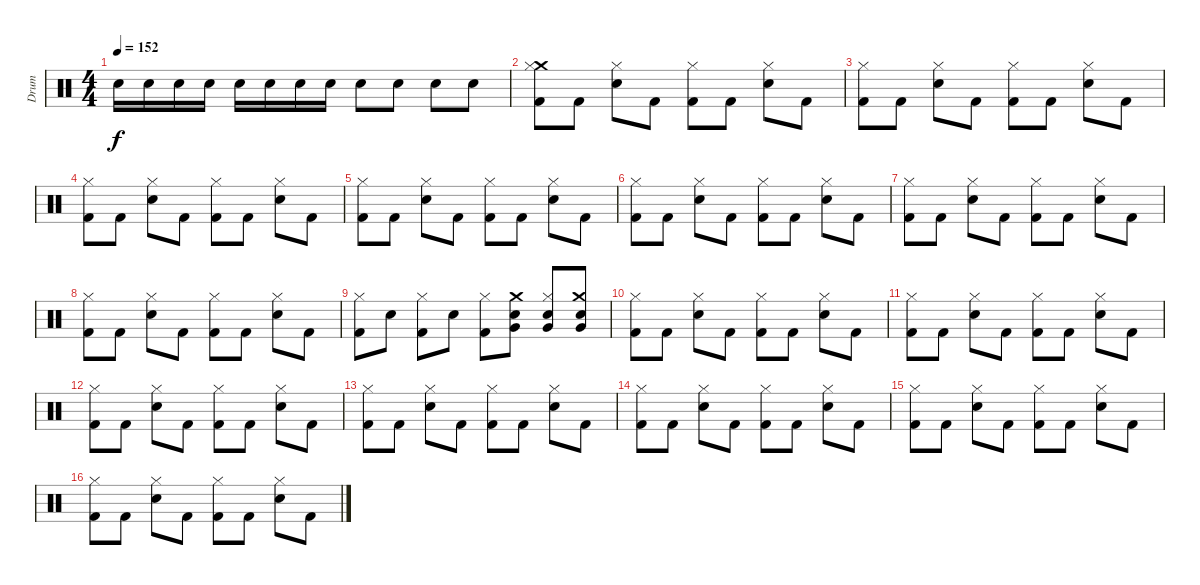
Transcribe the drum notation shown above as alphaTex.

\track ("Drum" "Drum") {instrument percussion}
\staff {score}
\articulation defaults
\ts (4 4)
\tempo 152
\clef neutral
\ks c "Electric Snare (hit)".16{dy f} "Electric Snare (hit)".16 "Electric Snare (hit)".16 "Electric Snare (hit)".16 "Electric Snare (hit)".16 "Electric Snare (hit)".16 "Electric Snare (hit)".16 "Electric Snare (hit)".16 "Electric Snare (hit)".8 "Electric Snare (hit)".8 "Electric Snare (hit)".8 "Electric Snare (hit)".8
|
("Crash medium (hit)" "Hi-Hat (closed)" "Kick (hit) 2").8 "Kick (hit) 2".8 ("Hi-Hat (closed)" "Electric Snare (hit)").8 "Kick (hit) 2".8 ("Hi-Hat (closed)" "Kick (hit) 2").8 "Kick (hit) 2".8 ("Hi-Hat (closed)" "Electric Snare (hit)").8 "Kick (hit) 2".8 |
("Hi-Hat (closed)" "Kick (hit) 2").8 "Kick (hit) 2".8 ("Hi-Hat (closed)" "Electric Snare (hit)").8 "Kick (hit) 2".8 ("Hi-Hat (closed)" "Kick (hit) 2").8 "Kick (hit) 2".8 ("Hi-Hat (closed)" "Electric Snare (hit)").8 "Kick (hit) 2".8 |
("Hi-Hat (closed)" "Kick (hit) 2").8 "Kick (hit) 2".8 ("Hi-Hat (closed)" "Electric Snare (hit)").8 "Kick (hit) 2".8 ("Hi-Hat (closed)" "Kick (hit) 2").8 "Kick (hit) 2".8 ("Hi-Hat (closed)" "Electric Snare (hit)").8 "Kick (hit) 2".8 |
("Hi-Hat (closed)" "Kick (hit) 2").8 "Kick (hit) 2".8 ("Hi-Hat (closed)" "Electric Snare (hit)").8 "Kick (hit) 2".8 ("Hi-Hat (closed)" "Kick (hit) 2").8 "Kick (hit) 2".8 ("Hi-Hat (closed)" "Electric Snare (hit)").8 "Kick (hit) 2".8 |
("Hi-Hat (closed)" "Kick (hit) 2").8 "Kick (hit) 2".8 ("Hi-Hat (closed)" "Electric Snare (hit)").8 "Kick (hit) 2".8 ("Hi-Hat (closed)" "Kick (hit) 2").8 "Kick (hit) 2".8 ("Hi-Hat (closed)" "Electric Snare (hit)").8 "Kick (hit) 2".8 |
("Hi-Hat (closed)" "Kick (hit) 2").8 "Kick (hit) 2".8 ("Hi-Hat (closed)" "Electric Snare (hit)").8 "Kick (hit) 2".8 ("Hi-Hat (closed)" "Kick (hit) 2").8 "Kick (hit) 2".8 ("Hi-Hat (closed)" "Electric Snare (hit)").8 "Kick (hit) 2".8 |
("Hi-Hat (closed)" "Kick (hit) 2").8 "Kick (hit) 2".8 ("Hi-Hat (closed)" "Electric Snare (hit)").8 "Kick (hit) 2".8 ("Hi-Hat (closed)" "Kick (hit) 2").8 "Kick (hit) 2".8 ("Hi-Hat (closed)" "Electric Snare (hit)").8 "Kick (hit) 2".8 |
("Hi-Hat (closed)" "Kick (hit) 2").8 "Electric Snare (hit)".8 ("Hi-Hat (closed)" "Kick (hit) 2").8 "Electric Snare (hit)".8 ("Hi-Hat (closed)" "Kick (hit) 2").8 ("Crash medium (hit)" "Very Low Tom (hit)" "Electric Snare (hit)").8 ("Hi-Hat (closed)" "Very Low Tom (hit)" "Electric Snare (hit)").8 ("Crash medium (hit)" "Very Low Tom (hit)" "Electric Snare (hit)").8 |
("Hi-Hat (closed)" "Kick (hit) 2").8 "Kick (hit) 2".8 ("Hi-Hat (closed)" "Electric Snare (hit)").8 "Kick (hit) 2".8 ("Hi-Hat (closed)" "Kick (hit) 2").8 "Kick (hit) 2".8 ("Hi-Hat (closed)" "Electric Snare (hit)").8 "Kick (hit) 2".8 |
("Hi-Hat (closed)" "Kick (hit) 2").8 "Kick (hit) 2".8 ("Hi-Hat (closed)" "Electric Snare (hit)").8 "Kick (hit) 2".8 ("Hi-Hat (closed)" "Kick (hit) 2").8 "Kick (hit) 2".8 ("Hi-Hat (closed)" "Electric Snare (hit)").8 "Kick (hit) 2".8 |
("Hi-Hat (closed)" "Kick (hit) 2").8 "Kick (hit) 2".8 ("Hi-Hat (closed)" "Electric Snare (hit)").8 "Kick (hit) 2".8 ("Hi-Hat (closed)" "Kick (hit) 2").8 "Kick (hit) 2".8 ("Hi-Hat (closed)" "Electric Snare (hit)").8 "Kick (hit) 2".8 |
("Hi-Hat (closed)" "Kick (hit) 2").8 "Kick (hit) 2".8 ("Hi-Hat (closed)" "Electric Snare (hit)").8 "Kick (hit) 2".8 ("Hi-Hat (closed)" "Kick (hit) 2").8 "Kick (hit) 2".8 ("Hi-Hat (closed)" "Electric Snare (hit)").8 "Kick (hit) 2".8 |
("Hi-Hat (closed)" "Kick (hit) 2").8 "Kick (hit) 2".8 ("Hi-Hat (closed)" "Electric Snare (hit)").8 "Kick (hit) 2".8 ("Hi-Hat (closed)" "Kick (hit) 2").8 "Kick (hit) 2".8 ("Hi-Hat (closed)" "Electric Snare (hit)").8 "Kick (hit) 2".8 |
("Hi-Hat (closed)" "Kick (hit) 2").8 "Kick (hit) 2".8 ("Hi-Hat (closed)" "Electric Snare (hit)").8 "Kick (hit) 2".8 ("Hi-Hat (closed)" "Kick (hit) 2").8 "Kick (hit) 2".8 ("Hi-Hat (closed)" "Electric Snare (hit)").8 "Kick (hit) 2".8 |
("Hi-Hat (closed)" "Kick (hit) 2").8 "Kick (hit) 2".8 ("Hi-Hat (closed)" "Electric Snare (hit)").8 "Kick (hit) 2".8 ("Hi-Hat (closed)" "Kick (hit) 2").8 "Kick (hit) 2".8 ("Hi-Hat (closed)" "Electric Snare (hit)").8 "Kick (hit) 2".8
